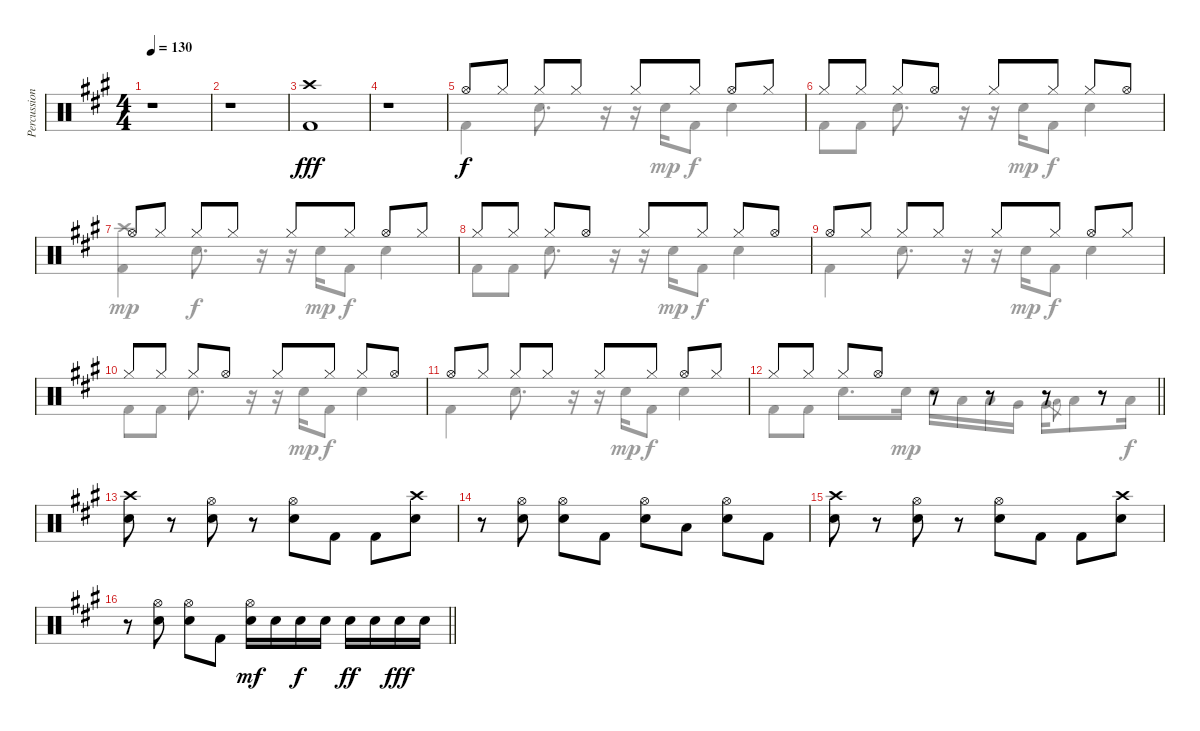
\track ("Percussion" "Percussion") {instrument percussion}
\staff {score}
\articulation defaults
\voice
\ts (4 4)
\tempo 130
\clef neutral
\ks a
r.1{dy fff} |
r.1 |
("Kick (hit) 2" "Crash high (hit)").1 |
r.1{volume 0} |
"Hi-Hat (open)".8{dy f volume 14} "Hi-Hat (closed)".8 "Hi-Hat (closed)".8 "Hi-Hat (closed)".8 "Hi-Hat (closed)".8 "Hi-Hat (closed)".8 "Hi-Hat (open)".8 "Hi-Hat (closed)".8 |
"Hi-Hat (closed)".8 "Hi-Hat (closed)".8 "Hi-Hat (closed)".8 "Hi-Hat (open)".8 "Hi-Hat (closed)".8 "Hi-Hat (closed)".8 "Hi-Hat (closed)".8 "Hi-Hat (open)".8 |
"Hi-Hat (open)".8 "Hi-Hat (closed)".8 "Hi-Hat (closed)".8 "Hi-Hat (closed)".8 "Hi-Hat (closed)".8 "Hi-Hat (closed)".8 "Hi-Hat (open)".8 "Hi-Hat (closed)".8 |
"Hi-Hat (closed)".8 "Hi-Hat (closed)".8 "Hi-Hat (closed)".8 "Hi-Hat (open)".8 "Hi-Hat (closed)".8 "Hi-Hat (closed)".8 "Hi-Hat (closed)".8 "Hi-Hat (open)".8 |
"Hi-Hat (open)".8 "Hi-Hat (closed)".8 "Hi-Hat (closed)".8 "Hi-Hat (closed)".8 "Hi-Hat (closed)".8 "Hi-Hat (closed)".8 "Hi-Hat (open)".8 "Hi-Hat (closed)".8 |
"Hi-Hat (closed)".8 "Hi-Hat (closed)".8 "Hi-Hat (closed)".8 "Hi-Hat (open)".8 "Hi-Hat (closed)".8 "Hi-Hat (closed)".8 "Hi-Hat (closed)".8 "Hi-Hat (open)".8 |
"Hi-Hat (open)".8 "Hi-Hat (closed)".8 "Hi-Hat (closed)".8 "Hi-Hat (closed)".8 "Hi-Hat (closed)".8 "Hi-Hat (closed)".8 "Hi-Hat (open)".8 "Hi-Hat (closed)".8 |
\barLineRight lightlight "Hi-Hat (closed)".8 "Hi-Hat (closed)".8 "Hi-Hat (closed)".8 "Hi-Hat (open)".8
r.8 r.8 r.8 r.8 |
("Electric Snare (hit)" "Crash high (hit)").8 r.8 ("Hi-Hat (open)" "Electric Snare (hit)").8 r.8 ("Hi-Hat (open)" "Electric Snare (hit)").8 "Kick (hit) 2".8 "Kick (hit) 2".8 ("Crash high (hit)" "Electric Snare (hit)").8 |
r.8 ("Electric Snare (hit)" "Hi-Hat (open)").8 ("Electric Snare (hit)" "Hi-Hat (open)").8 "Kick (hit) 2".8 ("Hi-Hat (open)" "Electric Snare (hit)").8 "Low Floor Tom (hit)".8 ("Hi-Hat (open)" "Electric Snare (hit)").8 "Kick (hit) 2".8 |
("Electric Snare (hit)" "Crash high (hit)").8 r.8 ("Hi-Hat (open)" "Electric Snare (hit)").8 r.8 ("Hi-Hat (open)" "Electric Snare (hit)").8 "Kick (hit) 2".8 "Kick (hit) 2".8 ("Crash high (hit)" "Electric Snare (hit)").8 |
\barLineRight lightlight
r.8 ("Electric Snare (hit)" "Hi-Hat (open)").8 ("Electric Snare (hit)" "Hi-Hat (open)").8 "Kick (hit) 2".8 ("Hi-Hat (open)" "Electric Snare (hit)").16{dy mf} "Electric Snare (hit)".16 "Electric Snare (hit)".16{dy f} "Electric Snare (hit)".16 "Electric Snare (hit)".16{dy ff} "Electric Snare (hit)".16 "Electric Snare (hit)".16{dy fff} "Electric Snare (hit)".16
\voice
\clef neutral
\ottava regular
\simile none
\ks a
|
|
|
|
"Kick (hit) 2".4{dy f} "Electric Snare (hit)".8{d} r.16 r.16 "Electric Snare (hit)".16{dy mp} "Kick (hit) 2".8{dy f} "Electric Snare (hit)".4 |
"Kick (hit) 2".8 "Kick (hit) 2".8 "Electric Snare (hit)".8{d} r.16 r.16 "Electric Snare (hit)".16{dy mp} "Kick (hit) 2".8{dy f} "Electric Snare (hit)".4 |
("Crash high (hit)" "Kick (hit) 2").4{dy mp} "Electric Snare (hit)".8{d dy f} r.16 r.16 "Electric Snare (hit)".16{dy mp} "Kick (hit) 2".8{dy f} "Electric Snare (hit)".4 |
"Kick (hit) 2".8 "Kick (hit) 2".8 "Electric Snare (hit)".8{d} r.16 r.16 "Electric Snare (hit)".16{dy mp} "Kick (hit) 2".8{dy f} "Electric Snare (hit)".4 |
"Kick (hit) 2".4 "Electric Snare (hit)".8{d} r.16 r.16 "Electric Snare (hit)".16{dy mp} "Kick (hit) 2".8{dy f} "Electric Snare (hit)".4 |
"Kick (hit) 2".8 "Kick (hit) 2".8 "Electric Snare (hit)".8{d} r.16 r.16 "Electric Snare (hit)".16{dy mp} "Kick (hit) 2".8{dy f} "Electric Snare (hit)".4 |
"Kick (hit) 2".4 "Electric Snare (hit)".8{d} r.16 r.16 "Electric Snare (hit)".16{dy mp} "Kick (hit) 2".8{dy f} "Electric Snare (hit)".4 |
\barLineRight lightlight "Kick (hit) 2".8 "Kick (hit) 2".8 "Electric Snare (hit)".8{d} "Electric Snare (hit)".16{dy mp} "Electric Snare (hit)".16 "Low Tom (hit)".16 "Low Tom (hit)".16 "Very Low Tom (hit)".16 "Very Low Tom (hit)".16 "Low Floor Tom (hit)".8{gr} "Low Floor Tom (hit)".8 "Low Floor Tom (hit)".16{dy f}
|
|
|
|
\barLineRight lightlight
